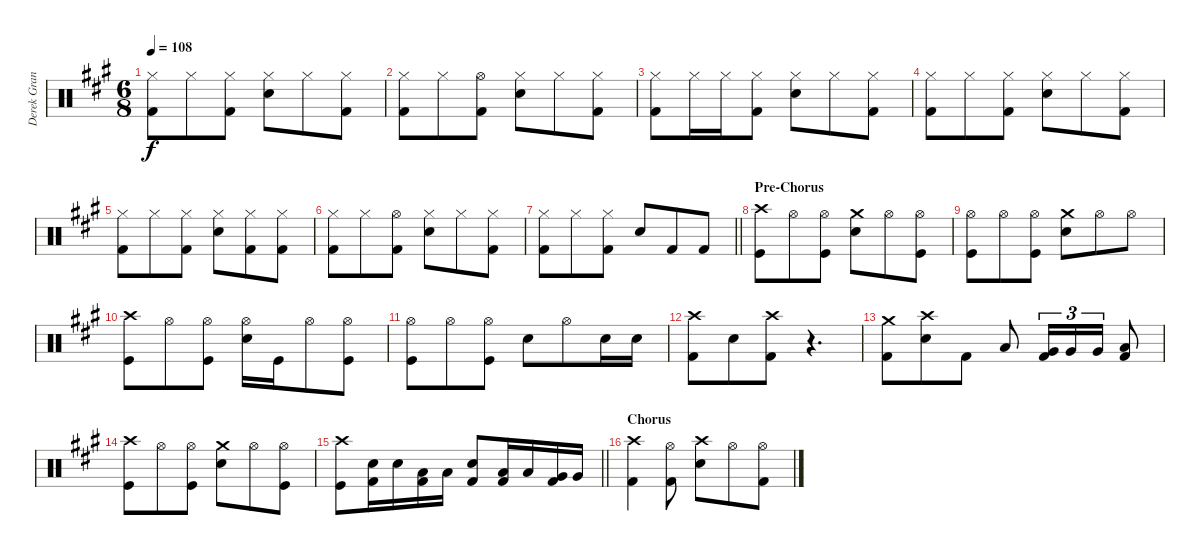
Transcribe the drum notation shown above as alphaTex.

\track ("Derek Grant - Drums" "Derek Gran") {instrument percussion}
\staff {score}
\articulation defaults
\ts (6 8)
\tempo 108
\clef neutral
\ks a
("Kick (hit) 2" "Hi-Hat (closed)").8{dy f} "Hi-Hat (closed)".8 ("Kick (hit) 2" "Hi-Hat (closed)").8 ("Snare (hit) 2" "Hi-Hat (closed)").8 "Hi-Hat (closed)".8 ("Hi-Hat (closed)" "Kick (hit) 2").8 |
("Kick (hit) 2" "Hi-Hat (closed)").8 "Hi-Hat (closed)".8 ("Kick (hit) 2" "Hi-Hat (open)").8 ("Snare (hit) 2" "Hi-Hat (closed)").8 "Hi-Hat (closed)".8 ("Hi-Hat (closed)" "Kick (hit) 2").8 |
("Kick (hit) 2" "Hi-Hat (closed)").8 "Hi-Hat (closed)".16 "Hi-Hat (closed)".16 ("Kick (hit) 2" "Hi-Hat (closed)").8 ("Snare (hit) 2" "Hi-Hat (closed)").8 "Hi-Hat (closed)".8 ("Hi-Hat (closed)" "Kick (hit) 2").8 |
("Kick (hit) 2" "Hi-Hat (closed)").8 "Hi-Hat (closed)".8 ("Kick (hit) 2" "Hi-Hat (closed)").8 ("Snare (hit) 2" "Hi-Hat (closed)").8 "Hi-Hat (closed)".8 ("Hi-Hat (closed)" "Kick (hit) 2").8 |
("Kick (hit) 2" "Hi-Hat (closed)").8 "Hi-Hat (closed)".8 ("Kick (hit) 2" "Hi-Hat (closed)").8 ("Snare (hit) 2" "Hi-Hat (closed)").8 ("Hi-Hat (closed)" "Kick (hit) 2").8 ("Hi-Hat (closed)" "Kick (hit) 2").8 |
("Kick (hit) 2" "Hi-Hat (closed)").8 "Hi-Hat (closed)".8 ("Kick (hit) 2" "Hi-Hat (open)").8 ("Snare (hit) 2" "Hi-Hat (closed)").8 "Hi-Hat (closed)".8 ("Hi-Hat (closed)" "Kick (hit) 2").8 |
\barLineRight lightlight
("Kick (hit) 2" "Hi-Hat (closed)").8 "Hi-Hat (closed)".8 ("Kick (hit) 2" "Hi-Hat (closed)").8 "Snare (hit) 2".8 "Kick (hit) 2".8 "Kick (hit) 2".8 |
\section ("" "Pre-Chorus")
("Crash high (hit)" "Kick (hit)").8 "Hi-Hat (open)".8 ("Hi-Hat (open)" "Kick (hit)").8 ("Crash medium (hit)" "Snare (hit) 2").8 "Hi-Hat (open)".8 ("Hi-Hat (open)" "Kick (hit)").8 |
("Kick (hit)" "Hi-Hat (open)").8 "Hi-Hat (open)".8 ("Hi-Hat (open)" "Kick (hit)").8 ("Crash medium (hit)" "Snare (hit) 2").8 "Hi-Hat (open)".8 "Hi-Hat (open)".8 |
("Crash high (hit)" "Kick (hit)").8 "Hi-Hat (open)".8 ("Hi-Hat (open)" "Kick (hit)").8 ("Hi-Hat (open)" "Snare (hit) 2").16 "Kick (hit)".16 "Hi-Hat (open)".8 ("Hi-Hat (open)" "Kick (hit)").8 |
("Kick (hit)" "Hi-Hat (open)").8 "Hi-Hat (open)".8 ("Hi-Hat (open)" "Kick (hit)").8 "Snare (hit) 2".8 "Hi-Hat (open)".8 "Snare (hit) 2".16 "Snare (hit) 2".16 |
("Crash high (hit)" "Kick (hit) 2").8 "Snare (hit) 2".8 ("Crash high (hit)" "Kick (hit) 2").8 r.4{d} |
("Kick (hit) 2" "Crash medium (hit)").8 ("Snare (hit) 2" "Crash high (hit)").8 "Kick (hit) 2".8 "Low Tom (hit)".8 ("Very Low Tom (hit)" "Kick (hit) 2").16{tu (3 2)} "Very Low Tom (hit)".16{tu (3 2)} "Very Low Tom (hit)".16{tu (3 2)} ("Low Floor Tom (hit)" "Kick (hit) 2").8 |
("Crash high (hit)" "Kick (hit)").8 "Hi-Hat (open)".8 ("Hi-Hat (open)" "Kick (hit)").8 ("Crash medium (hit)" "Snare (hit) 2").8 "Hi-Hat (open)".8 ("Hi-Hat (open)" "Kick (hit)").8 |
\barLineRight lightlight
("Crash high (hit)" "Kick (hit)").8 ("Snare (hit) 2" "Kick (hit) 2").16 "Snare (hit) 2".16 ("Low Tom (hit)" "Kick (hit) 2").16 "Low Tom (hit)".16 ("Snare (hit) 2" "Kick (hit) 2").8 ("Low Tom (hit)" "Kick (hit) 2").16 "Low Tom (hit)".16 ("Very Low Tom (hit)" "Kick (hit) 2").16 "Very Low Tom (hit)".16 |
\section ("" "Chorus")
("Crash high (hit)" "Kick (hit) 2").4 ("Kick (hit) 2" "Hi-Hat (open)").8 ("Snare (hit) 2" "Crash high (hit)").8 "Hi-Hat (open)".8 ("Kick (hit) 2" "Hi-Hat (open)").8
